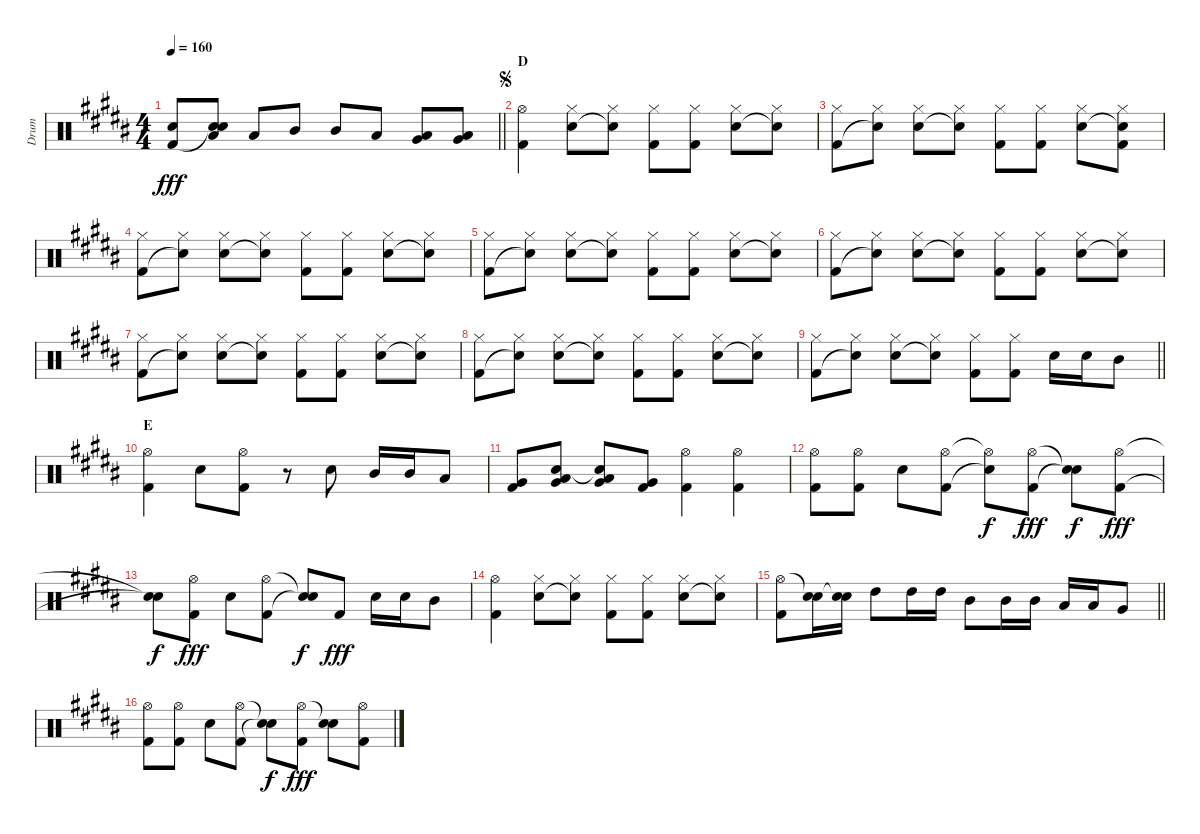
\track ("Drum" "Drum") {instrument percussion}
\staff {score}
\articulation defaults
\ts (4 4)
\tempo 160
\clef neutral
\barLineRight lightlight
\ks b
("Snare (hit) 2" "Kick (hit) 2").8{dy fff} ("Low Tom (hit)" "Snare (hit)"{t} "Snare (hit)").8 "Low Tom (hit)".8 "Mid Tom (hit)".8 "Mid Tom (hit)".8 "Low Tom (hit)".8 ("Low Tom (hit)" "Very Low Tom (hit)").8 ("Low Tom (hit)" "Very Low Tom (hit)").8 |
\section ("" "D")
\jump segno
("Hi-Hat (open)" "Kick (hit) 2").4 ("Hi-Hat (closed)" "Snare (hit) 2").8 ("Hi-Hat (closed)" "Snare (hit)"{t}).8 ("Hi-Hat (closed)" "Kick (hit) 2").8 ("Hi-Hat (closed)" "Kick (hit) 2").8 ("Hi-Hat (closed)" "Snare (hit) 2").8 ("Hi-Hat (closed)" "Snare (hit)"{t}).8 |
("Hi-Hat (closed)" "Kick (hit) 2").8 ("Hi-Hat (closed)" "Snare (hit)"{t}).8 ("Hi-Hat (closed)" "Snare (hit) 2").8 ("Hi-Hat (closed)" "Snare (hit)"{t}).8 ("Hi-Hat (closed)" "Kick (hit) 2").8 ("Hi-Hat (closed)" "Kick (hit) 2").8 ("Hi-Hat (closed)" "Snare (hit) 2").8 ("Hi-Hat (closed)" "Snare (hit)"{t} "Kick (hit) 2").8 |
("Hi-Hat (closed)" "Kick (hit) 2").8 ("Hi-Hat (closed)" "Snare (hit)"{t}).8 ("Hi-Hat (closed)" "Snare (hit) 2").8 ("Hi-Hat (closed)" "Snare (hit)"{t}).8 ("Hi-Hat (closed)" "Kick (hit) 2").8 ("Hi-Hat (closed)" "Kick (hit) 2").8 ("Hi-Hat (closed)" "Snare (hit) 2").8 ("Hi-Hat (closed)" "Snare (hit)"{t}).8 |
("Hi-Hat (closed)" "Kick (hit) 2").8 ("Hi-Hat (closed)" "Snare (hit)"{t}).8 ("Hi-Hat (closed)" "Snare (hit) 2").8 ("Hi-Hat (closed)" "Snare (hit)"{t}).8 ("Hi-Hat (closed)" "Kick (hit) 2").8 ("Hi-Hat (closed)" "Kick (hit) 2").8 ("Hi-Hat (closed)" "Snare (hit) 2").8 ("Hi-Hat (closed)" "Snare (hit)"{t}).8 |
("Hi-Hat (closed)" "Kick (hit) 2").8 ("Hi-Hat (closed)" "Snare (hit)"{t}).8 ("Hi-Hat (closed)" "Snare (hit) 2").8 ("Hi-Hat (closed)" "Snare (hit)"{t}).8 ("Hi-Hat (closed)" "Kick (hit) 2").8 ("Hi-Hat (closed)" "Kick (hit) 2").8 ("Hi-Hat (closed)" "Snare (hit) 2").8 ("Hi-Hat (closed)" "Snare (hit)"{t}).8 |
("Hi-Hat (closed)" "Kick (hit) 2").8 ("Hi-Hat (closed)" "Snare (hit)"{t}).8 ("Hi-Hat (closed)" "Snare (hit) 2").8 ("Hi-Hat (closed)" "Snare (hit)"{t}).8 ("Hi-Hat (closed)" "Kick (hit) 2").8 ("Hi-Hat (closed)" "Kick (hit) 2").8 ("Hi-Hat (closed)" "Snare (hit) 2").8 ("Hi-Hat (closed)" "Snare (hit)"{t}).8 |
("Hi-Hat (closed)" "Kick (hit) 2").8 ("Hi-Hat (closed)" "Snare (hit)"{t}).8 ("Hi-Hat (closed)" "Snare (hit) 2").8 ("Hi-Hat (closed)" "Snare (hit)"{t}).8 ("Hi-Hat (closed)" "Kick (hit) 2").8 ("Hi-Hat (closed)" "Kick (hit) 2").8 ("Hi-Hat (closed)" "Snare (hit) 2").8 ("Hi-Hat (closed)" "Snare (hit)"{t}).8 |
\barLineRight lightlight
("Hi-Hat (closed)" "Kick (hit) 2").8 ("Hi-Hat (closed)" "Snare (hit)"{t}).8 ("Hi-Hat (closed)" "Snare (hit) 2").8 ("Hi-Hat (closed)" "Snare (hit)"{t}).8 ("Hi-Hat (closed)" "Kick (hit) 2").8 ("Hi-Hat (closed)" "Kick (hit) 2").8 "Snare (hit) 2".16 "Snare (hit) 2".16 "Mid Tom (hit)".8 |
\section ("" "E")
("Hi-Hat (open)" "Kick (hit) 2").4 "Snare (hit) 2".8 ("Hi-Hat (open)" "Kick (hit) 2").8 r.8 "Snare (hit) 2".8 "Mid Tom (hit)".16 "Mid Tom (hit)".16 "Low Tom (hit)".8 |
("Very Low Tom (hit)" "Kick (hit) 2").8 ("Low Tom (hit)" "Very Low Tom (hit)" "Snare (hit)").8 ("Low Tom (hit)" "Very Low Tom (hit)" "Snare (hit)"{t}).8 ("Very Low Tom (hit)" "Kick (hit) 2").8 ("Hi-Hat (open)" "Kick (hit) 2").4 ("Hi-Hat (open)" "Kick (hit) 2").4 |
("Hi-Hat (open)" "Kick (hit) 2").8 ("Hi-Hat (open)" "Kick (hit) 2").8 "Snare (hit) 2".8 ("Hi-Hat (open)" "Kick (hit) 2").8 ("Hi-Hat (open)"{t} "Snare (hit)"{t}).8{dy f} ("Hi-Hat (open)" "Kick (hit) 2").8{dy fff} ("Snare (hit)"{t} "Snare (hit)"{t}).8{dy f} ("Hi-Hat (open)" "Kick (hit) 2").8{dy fff} |
("Snare (hit)"{t} "Snare (hit)"{t}).8{dy f} ("Hi-Hat (open)" "Kick (hit) 2").8{dy fff} "Snare (hit) 2".8 ("Hi-Hat (open)" "Kick (hit) 2").8 ("Snare (hit)"{t} "Snare (hit)"{t}).8{dy f} "Kick (hit) 2".8{dy fff} "Snare (hit) 2".16 "Snare (hit) 2".16 "Mid Tom (hit)".8 |
("Hi-Hat (open)" "Kick (hit) 2").4 ("Hi-Hat (closed)" "Snare (hit) 2").8 ("Hi-Hat (closed)" "Snare (hit)"{t}).8 ("Hi-Hat (closed)" "Kick (hit) 2").8 ("Hi-Hat (closed)" "Kick (hit) 2").8 ("Hi-Hat (closed)" "Snare (hit) 2").8 ("Hi-Hat (closed)" "Snare (hit)"{t}).8 |
\barLineRight lightlight
("Hi-Hat (open)" "Kick (hit) 2").8 ("Snare (hit)"{t} "Snare (hit) 2").16 ("Snare (hit)"{t} "Snare (hit) 2").16 "High Tom (hit)".8 "High Tom (hit)".16 "High Tom (hit)".16 "Mid Tom (hit)".8 "Mid Tom (hit)".16 "Mid Tom (hit)".16 "Low Tom (hit)".16 "Low Tom (hit)".16 "Very Low Tom (hit)".8 |
("Hi-Hat (open)" "Kick (hit) 2").8 ("Hi-Hat (open)" "Kick (hit) 2").8 "Snare (hit) 2".8 ("Hi-Hat (open)" "Kick (hit) 2").8 ("Snare (hit)"{t} "Snare (hit)"{t}).8{dy f} ("Hi-Hat (open)" "Kick (hit) 2").8{dy fff} ("Snare (hit)"{t} "Snare (hit) 2").8 ("Hi-Hat (open)" "Kick (hit) 2").8
